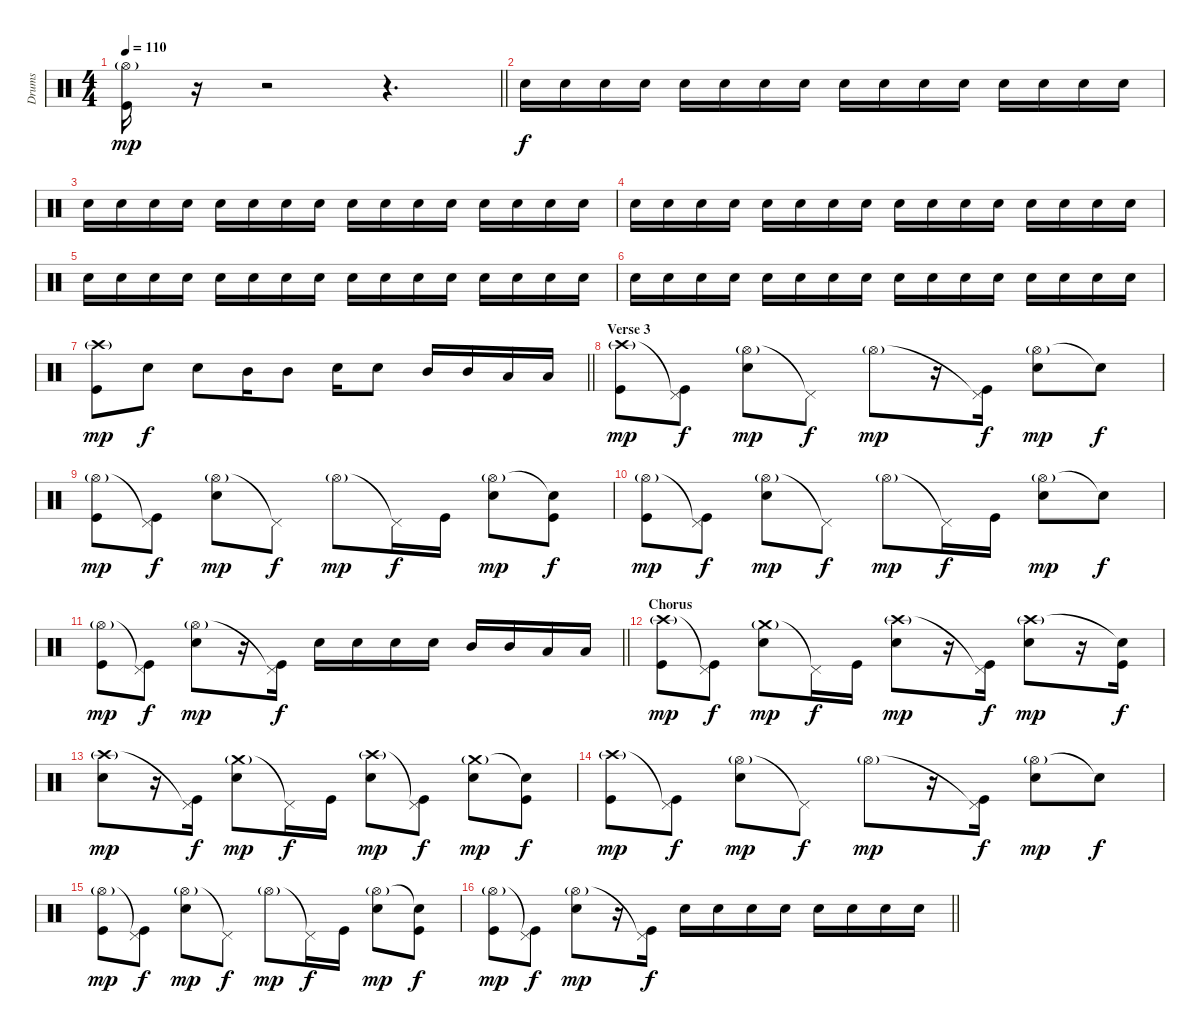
\track ("Drums" "Drums") {instrument percussion}
\staff {score}
\articulation defaults
\ts (4 4)
\tempo 110
\clef neutral
\barLineRight lightlight
\ks c
("Hi-Hat (open)"{g} "Kick (hit)").16{dy mp} r.16 r.2 r.4{d volume 4} |
"Electric Snare (hit)".16{dy f volume 13} "Electric Snare (hit)".16 "Electric Snare (hit)".16 "Electric Snare (hit)".16 "Electric Snare (hit)".16 "Electric Snare (hit)".16 "Electric Snare (hit)".16 "Electric Snare (hit)".16 "Electric Snare (hit)".16 "Electric Snare (hit)".16 "Electric Snare (hit)".16 "Electric Snare (hit)".16 "Electric Snare (hit)".16 "Electric Snare (hit)".16 "Electric Snare (hit)".16 "Electric Snare (hit)".16 |
"Electric Snare (hit)".16 "Electric Snare (hit)".16 "Electric Snare (hit)".16 "Electric Snare (hit)".16 "Electric Snare (hit)".16 "Electric Snare (hit)".16 "Electric Snare (hit)".16 "Electric Snare (hit)".16 "Electric Snare (hit)".16 "Electric Snare (hit)".16 "Electric Snare (hit)".16 "Electric Snare (hit)".16 "Electric Snare (hit)".16 "Electric Snare (hit)".16 "Electric Snare (hit)".16 "Electric Snare (hit)".16 |
"Electric Snare (hit)".16 "Electric Snare (hit)".16 "Electric Snare (hit)".16 "Electric Snare (hit)".16 "Electric Snare (hit)".16 "Electric Snare (hit)".16 "Electric Snare (hit)".16 "Electric Snare (hit)".16 "Electric Snare (hit)".16 "Electric Snare (hit)".16 "Electric Snare (hit)".16 "Electric Snare (hit)".16 "Electric Snare (hit)".16 "Electric Snare (hit)".16 "Electric Snare (hit)".16 "Electric Snare (hit)".16 |
"Electric Snare (hit)".16 "Electric Snare (hit)".16 "Electric Snare (hit)".16 "Electric Snare (hit)".16 "Electric Snare (hit)".16 "Electric Snare (hit)".16 "Electric Snare (hit)".16 "Electric Snare (hit)".16 "Electric Snare (hit)".16 "Electric Snare (hit)".16 "Electric Snare (hit)".16 "Electric Snare (hit)".16 "Electric Snare (hit)".16 "Electric Snare (hit)".16 "Electric Snare (hit)".16 "Electric Snare (hit)".16 |
"Electric Snare (hit)".16 "Electric Snare (hit)".16 "Electric Snare (hit)".16 "Electric Snare (hit)".16 "Electric Snare (hit)".16 "Electric Snare (hit)".16 "Electric Snare (hit)".16 "Electric Snare (hit)".16 "Electric Snare (hit)".16 "Electric Snare (hit)".16 "Electric Snare (hit)".16 "Electric Snare (hit)".16 "Electric Snare (hit)".16 "Electric Snare (hit)".16 "Electric Snare (hit)".16 "Electric Snare (hit)".16 |
\barLineRight lightlight
("Crash high (hit)"{g} "Kick (hit)").8{dy mp} "Electric Snare (hit)".8{dy f} "Electric Snare (hit)".8 "Mid Tom (hit)".16 "Mid Tom (hit)".8 "Electric Snare (hit)".16 "Electric Snare (hit)".8 "Mid Tom (hit)".16 "Mid Tom (hit)".16 "Low Tom (hit)".16 "Low Tom (hit)".16 |
\section ("" "Verse 3")
("Crash high (hit)"{g} "Kick (hit)").8{dy mp} ("Pedal Hi-Hat (hit)"{t} "Kick (hit)").8{dy f} ("Hi-Hat (open)"{g} "Electric Snare (hit)").8{dy mp} "Pedal Hi-Hat (hit)"{t}.8{dy f} "Hi-Hat (open)"{g}.8{dy mp} r.16 ("Pedal Hi-Hat (hit)"{t} "Kick (hit)").16{dy f} ("Hi-Hat (open)"{g} "Electric Snare (hit)").8{dy mp} "Snare (hit)"{t}.8{dy f} |
("Hi-Hat (open)"{g} "Kick (hit)").8{dy mp} ("Pedal Hi-Hat (hit)"{t} "Kick (hit)").8{dy f} ("Hi-Hat (open)"{g} "Electric Snare (hit)").8{dy mp} "Pedal Hi-Hat (hit)"{t}.8{dy f} "Hi-Hat (open)"{g}.8{dy mp} "Pedal Hi-Hat (hit)"{t}.16{dy f} "Kick (hit)".16 ("Hi-Hat (open)"{g} "Electric Snare (hit)").8{dy mp} ("Snare (hit)"{t} "Kick (hit)").8{dy f} |
("Hi-Hat (open)"{g} "Kick (hit)").8{dy mp} ("Pedal Hi-Hat (hit)"{t} "Kick (hit)").8{dy f} ("Hi-Hat (open)"{g} "Electric Snare (hit)").8{dy mp} "Pedal Hi-Hat (hit)"{t}.8{dy f} "Hi-Hat (open)"{g}.8{dy mp} "Pedal Hi-Hat (hit)"{t}.16{dy f} "Kick (hit)".16 ("Hi-Hat (open)"{g} "Electric Snare (hit)").8{dy mp} "Snare (hit)"{t}.8{dy f} |
\barLineRight lightlight
("Hi-Hat (open)"{g} "Kick (hit)").8{dy mp} ("Pedal Hi-Hat (hit)"{t} "Kick (hit)").8{dy f} ("Hi-Hat (open)"{g} "Electric Snare (hit)").8{dy mp} r.16 ("Pedal Hi-Hat (hit)"{t} "Kick (hit)").16{dy f} "Electric Snare (hit)".16 "Electric Snare (hit)".16 "Electric Snare (hit)".16 "Electric Snare (hit)".16 "Mid Tom (hit)".16 "Mid Tom (hit)".16 "Low Tom (hit)".16 "Low Tom (hit)".16 |
\section ("" "Chorus")
("Crash high (hit)"{g} "Kick (hit)").8{dy mp} ("Pedal Hi-Hat (hit)"{t} "Kick (hit)").8{dy f} ("Crash medium (hit)"{g} "Electric Snare (hit)").8{dy mp} "Pedal Hi-Hat (hit)"{t}.16{dy f} "Kick (hit)".16 ("Crash high (hit)"{g} "Electric Snare (hit)").8{dy mp} r.16 ("Pedal Hi-Hat (hit)"{t} "Kick (hit)").16{dy f} ("Crash high (hit)"{g} "Electric Snare (hit)").8{dy mp} r.16 ("Snare (hit)"{t} "Kick (hit)").16{dy f} |
("Crash high (hit)"{g} "Electric Snare (hit)").8{dy mp} r.16 ("Pedal Hi-Hat (hit)"{t} "Kick (hit)").16{dy f} ("Crash medium (hit)"{g} "Electric Snare (hit)").8{dy mp} "Pedal Hi-Hat (hit)"{t}.16{dy f} "Kick (hit)".16 ("Crash high (hit)"{g} "Electric Snare (hit)").8{dy mp} ("Pedal Hi-Hat (hit)"{t} "Kick (hit)").8{dy f} ("Crash medium (hit)"{g} "Electric Snare (hit)").8{dy mp} ("Snare (hit)"{t} "Kick (hit)").8{dy f} |
("Crash high (hit)"{g} "Kick (hit)").8{dy mp} ("Pedal Hi-Hat (hit)"{t} "Kick (hit)").8{dy f} ("Hi-Hat (open)"{g} "Electric Snare (hit)").8{dy mp} "Pedal Hi-Hat (hit)"{t}.8{dy f} "Hi-Hat (open)"{g}.8{dy mp} r.16 ("Pedal Hi-Hat (hit)"{t} "Kick (hit)").16{dy f} ("Hi-Hat (open)"{g} "Electric Snare (hit)").8{dy mp} "Snare (hit)"{t}.8{dy f} |
("Hi-Hat (open)"{g} "Kick (hit)").8{dy mp} ("Pedal Hi-Hat (hit)"{t} "Kick (hit)").8{dy f} ("Hi-Hat (open)"{g} "Electric Snare (hit)").8{dy mp} "Pedal Hi-Hat (hit)"{t}.8{dy f} "Hi-Hat (open)"{g}.8{dy mp} "Pedal Hi-Hat (hit)"{t}.16{dy f} "Kick (hit)".16 ("Hi-Hat (open)"{g} "Electric Snare (hit)").8{dy mp} ("Snare (hit)"{t} "Kick (hit)").8{dy f} |
\barLineRight lightlight
("Hi-Hat (open)"{g} "Kick (hit)").8{dy mp} ("Pedal Hi-Hat (hit)"{t} "Kick (hit)").8{dy f} ("Hi-Hat (open)"{g} "Electric Snare (hit)").8{dy mp} r.16 ("Pedal Hi-Hat (hit)"{t} "Kick (hit)").16{dy f} "Electric Snare (hit)".16 "Electric Snare (hit)".16 "Electric Snare (hit)".16 "Electric Snare (hit)".16 "Electric Snare (hit)".16 "Electric Snare (hit)".16 "Electric Snare (hit)".16 "Electric Snare (hit)".16
